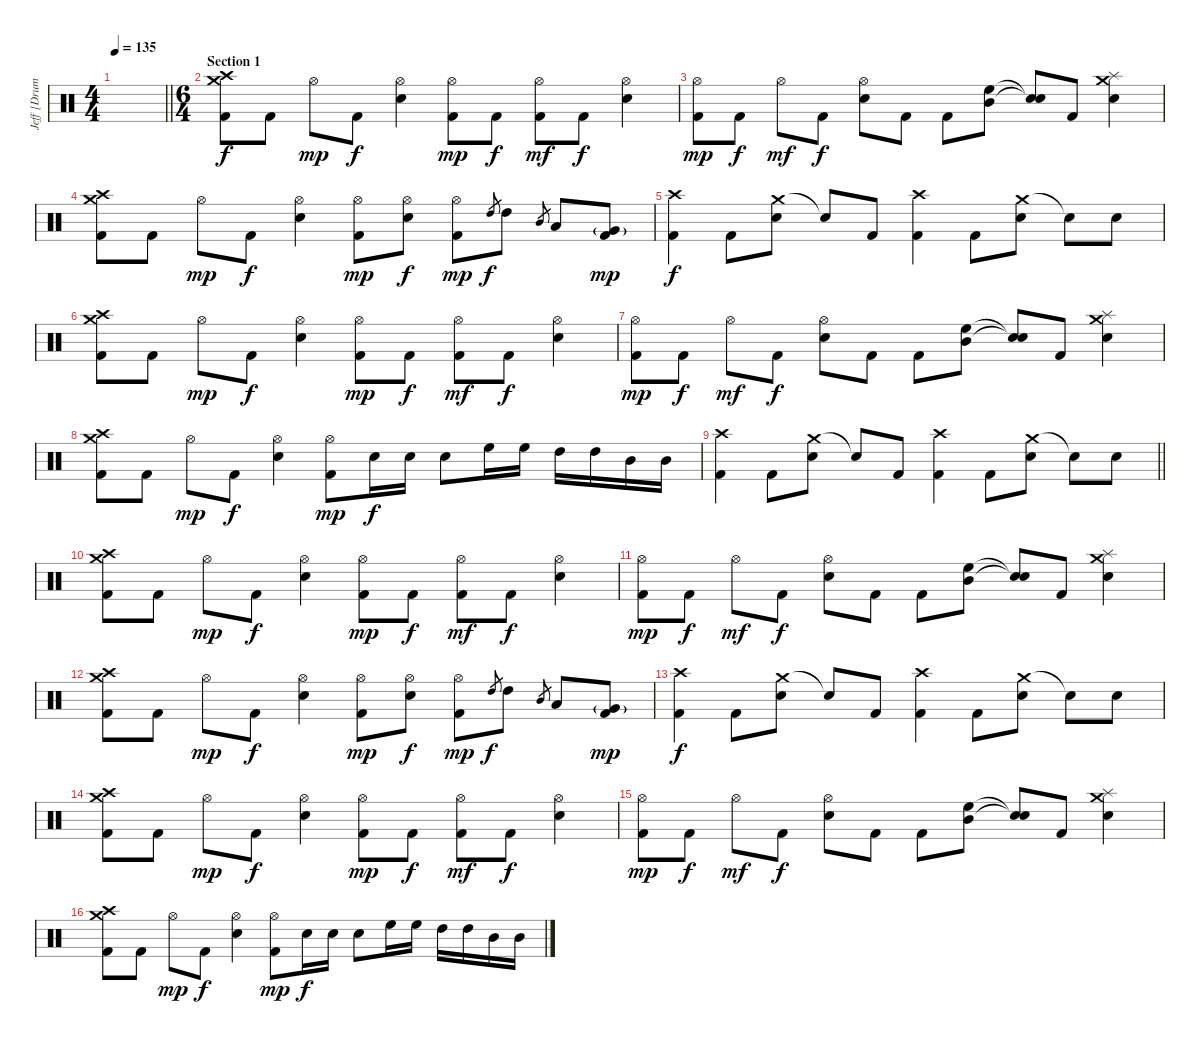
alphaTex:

\track ("Jeff [Drums]" "Jeff [Drum") {instrument percussion}
\staff {score}
\articulation defaults
\ts (4 4)
\tempo 135
\clef neutral
\barLineRight lightlight
\ks c
|
\ts (6 4)
\section ("" "Section 1")
("Crash high (hit)" "Crash medium (hit)" "Kick (hit) 2").8 "Kick (hit) 2".8 "Hi-Hat (open)".8{dy mp} "Kick (hit) 2".8{dy f} ("Hi-Hat (open)" "Electric Snare (hit)").4 ("Hi-Hat (open)" "Kick (hit) 2").8{dy mp} "Kick (hit) 2".8{dy f} ("Hi-Hat (open)" "Kick (hit) 2").8{dy mf} "Kick (hit) 2".8{dy f} ("Hi-Hat (open)" "Electric Snare (hit)").4 |
("Hi-Hat (open)" "Kick (hit) 2").8{dy mp} "Kick (hit) 2".8{dy f} "Hi-Hat (open)".8{dy mf} "Kick (hit) 2".8{dy f} ("Hi-Hat (open)" "Electric Snare (hit)").8 "Kick (hit) 2".8 "Kick (hit) 2".8 ("High Floor Tom (hit)" "Mid Tom (hit)").8 ("Snare (hit)"{t} "Snare (hit)"{t}).8 "Kick (hit) 2".8 ("Crash medium (hit)" "Splash (hit)" "Electric Snare (hit)").4 |
("Crash high (hit)" "Crash medium (hit)" "Kick (hit) 2").8 "Kick (hit) 2".8 "Hi-Hat (open)".8{dy mp} "Kick (hit) 2".8{dy f} ("Hi-Hat (open)" "Electric Snare (hit)").4 ("Hi-Hat (open)" "Kick (hit) 2").8{dy mp} ("Hi-Hat (open)" "Electric Snare (hit)").8{dy f} ("Hi-Hat (open)" "Kick (hit) 2").8{dy mp} "High Tom (hit)".8{gr dy f} "High Tom (hit)".8 "Mid Tom (hit)".8{gr} "Low Tom (hit)".8 ("Very Low Tom (hit)"{g} "Kick (hit) 2").8{dy mp} |
("Crash high (hit)" "Kick (hit) 2").4{dy f} "Kick (hit) 2".8 ("Crash medium (hit)" "Electric Snare (hit)").8 "Snare (hit)"{t}.8 "Kick (hit) 2".8 ("Crash high (hit)" "Kick (hit) 2").4 "Kick (hit) 2".8 ("Crash medium (hit)" "Electric Snare (hit)").8 "Snare (hit)"{t}.8 "Electric Snare (hit)".8 |
("Crash high (hit)" "Crash medium (hit)" "Kick (hit) 2").8 "Kick (hit) 2".8 "Hi-Hat (open)".8{dy mp} "Kick (hit) 2".8{dy f} ("Hi-Hat (open)" "Electric Snare (hit)").4 ("Hi-Hat (open)" "Kick (hit) 2").8{dy mp} "Kick (hit) 2".8{dy f} ("Hi-Hat (open)" "Kick (hit) 2").8{dy mf} "Kick (hit) 2".8{dy f} ("Hi-Hat (open)" "Electric Snare (hit)").4 |
("Hi-Hat (open)" "Kick (hit) 2").8{dy mp} "Kick (hit) 2".8{dy f} "Hi-Hat (open)".8{dy mf} "Kick (hit) 2".8{dy f} ("Hi-Hat (open)" "Electric Snare (hit)").8 "Kick (hit) 2".8 "Kick (hit) 2".8 ("High Floor Tom (hit)" "Mid Tom (hit)").8 ("Snare (hit)"{t} "Snare (hit)"{t}).8 "Kick (hit) 2".8 ("Crash medium (hit)" "Splash (hit)" "Electric Snare (hit)").4 |
("Crash high (hit)" "Crash medium (hit)" "Kick (hit) 2").8 "Kick (hit) 2".8 "Hi-Hat (open)".8{dy mp} "Kick (hit) 2".8{dy f} ("Hi-Hat (open)" "Electric Snare (hit)").4 ("Hi-Hat (open)" "Kick (hit) 2").8{dy mp} "Electric Snare (hit)".16{dy f} "Electric Snare (hit)".16 "Electric Snare (hit)".8 "High Floor Tom (hit)".16 "High Floor Tom (hit)".16 "High Tom (hit)".16 "High Tom (hit)".16 "Mid Tom (hit)".16 "Mid Tom (hit)".16 |
\barLineRight lightlight
("Crash high (hit)" "Kick (hit) 2").4 "Kick (hit) 2".8 ("Crash medium (hit)" "Electric Snare (hit)").8 "Snare (hit)"{t}.8 "Kick (hit) 2".8 ("Crash high (hit)" "Kick (hit) 2").4 "Kick (hit) 2".8 ("Crash medium (hit)" "Electric Snare (hit)").8 "Snare (hit)"{t}.8 "Electric Snare (hit)".8 |
("Crash high (hit)" "Crash medium (hit)" "Kick (hit) 2").8 "Kick (hit) 2".8 "Hi-Hat (open)".8{dy mp} "Kick (hit) 2".8{dy f} ("Hi-Hat (open)" "Electric Snare (hit)").4 ("Hi-Hat (open)" "Kick (hit) 2").8{dy mp} "Kick (hit) 2".8{dy f} ("Hi-Hat (open)" "Kick (hit) 2").8{dy mf} "Kick (hit) 2".8{dy f} ("Hi-Hat (open)" "Electric Snare (hit)").4 |
("Hi-Hat (open)" "Kick (hit) 2").8{dy mp} "Kick (hit) 2".8{dy f} "Hi-Hat (open)".8{dy mf} "Kick (hit) 2".8{dy f} ("Hi-Hat (open)" "Electric Snare (hit)").8 "Kick (hit) 2".8 "Kick (hit) 2".8 ("High Floor Tom (hit)" "Mid Tom (hit)").8 ("Snare (hit)"{t} "Snare (hit)"{t}).8 "Kick (hit) 2".8 ("Crash medium (hit)" "Splash (hit)" "Electric Snare (hit)").4 |
("Crash high (hit)" "Crash medium (hit)" "Kick (hit) 2").8 "Kick (hit) 2".8 "Hi-Hat (open)".8{dy mp} "Kick (hit) 2".8{dy f} ("Hi-Hat (open)" "Electric Snare (hit)").4 ("Hi-Hat (open)" "Kick (hit) 2").8{dy mp} ("Hi-Hat (open)" "Electric Snare (hit)").8{dy f} ("Hi-Hat (open)" "Kick (hit) 2").8{dy mp} "High Tom (hit)".8{gr dy f} "High Tom (hit)".8 "Mid Tom (hit)".8{gr} "Low Tom (hit)".8 ("Very Low Tom (hit)"{g} "Kick (hit) 2").8{dy mp} |
("Crash high (hit)" "Kick (hit) 2").4{dy f} "Kick (hit) 2".8 ("Crash medium (hit)" "Electric Snare (hit)").8 "Snare (hit)"{t}.8 "Kick (hit) 2".8 ("Crash high (hit)" "Kick (hit) 2").4 "Kick (hit) 2".8 ("Crash medium (hit)" "Electric Snare (hit)").8 "Snare (hit)"{t}.8 "Electric Snare (hit)".8 |
("Crash high (hit)" "Crash medium (hit)" "Kick (hit) 2").8 "Kick (hit) 2".8 "Hi-Hat (open)".8{dy mp} "Kick (hit) 2".8{dy f} ("Hi-Hat (open)" "Electric Snare (hit)").4 ("Hi-Hat (open)" "Kick (hit) 2").8{dy mp} "Kick (hit) 2".8{dy f} ("Hi-Hat (open)" "Kick (hit) 2").8{dy mf} "Kick (hit) 2".8{dy f} ("Hi-Hat (open)" "Electric Snare (hit)").4 |
("Hi-Hat (open)" "Kick (hit) 2").8{dy mp} "Kick (hit) 2".8{dy f} "Hi-Hat (open)".8{dy mf} "Kick (hit) 2".8{dy f} ("Hi-Hat (open)" "Electric Snare (hit)").8 "Kick (hit) 2".8 "Kick (hit) 2".8 ("High Floor Tom (hit)" "Mid Tom (hit)").8 ("Snare (hit)"{t} "Snare (hit)"{t}).8 "Kick (hit) 2".8 ("Crash medium (hit)" "Splash (hit)" "Electric Snare (hit)").4 |
("Crash high (hit)" "Crash medium (hit)" "Kick (hit) 2").8 "Kick (hit) 2".8 "Hi-Hat (open)".8{dy mp} "Kick (hit) 2".8{dy f} ("Hi-Hat (open)" "Electric Snare (hit)").4 ("Hi-Hat (open)" "Kick (hit) 2").8{dy mp} "Electric Snare (hit)".16{dy f} "Electric Snare (hit)".16 "Electric Snare (hit)".8 "High Floor Tom (hit)".16 "High Floor Tom (hit)".16 "High Tom (hit)".16 "High Tom (hit)".16 "Mid Tom (hit)".16 "Mid Tom (hit)".16
